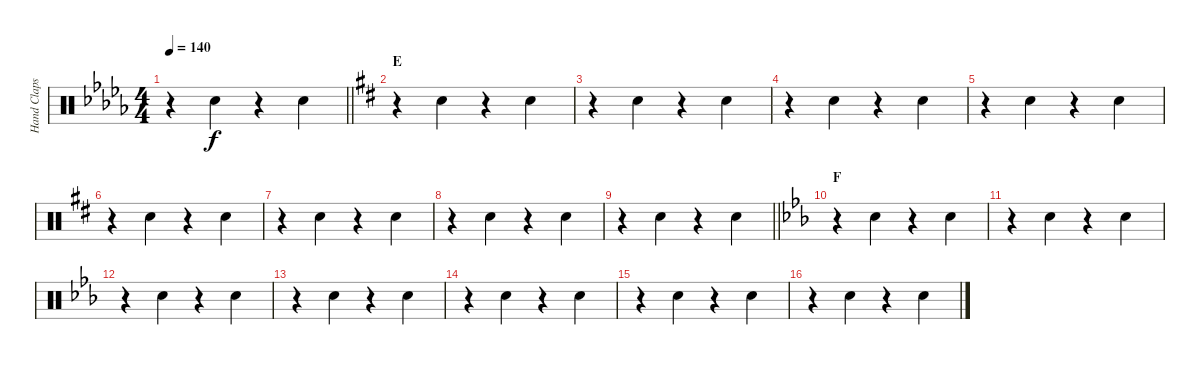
\track ("Hand Claps" "Hand Claps") {instrument percussion}
\staff {score}
\articulation defaults
\ts (4 4)
\tempo 140
\clef neutral
\barLineRight lightlight
\ks db
r.4{dy f} "Hand Clap (hit)".4 r.4 "Hand Clap (hit)".4 |
\section ("" "E")
\ks d
r.4 "Hand Clap (hit)".4 r.4 "Hand Clap (hit)".4 |
r.4 "Hand Clap (hit)".4 r.4 "Hand Clap (hit)".4 |
r.4 "Hand Clap (hit)".4 r.4 "Hand Clap (hit)".4 |
r.4 "Hand Clap (hit)".4 r.4 "Hand Clap (hit)".4 |
r.4 "Hand Clap (hit)".4 r.4 "Hand Clap (hit)".4 |
r.4 "Hand Clap (hit)".4 r.4 "Hand Clap (hit)".4 |
r.4 "Hand Clap (hit)".4 r.4 "Hand Clap (hit)".4 |
\barLineRight lightlight
r.4 "Hand Clap (hit)".4 r.4 "Hand Clap (hit)".4 |
\section ("" "F")
\ks eb
r.4 "Hand Clap (hit)".4 r.4 "Hand Clap (hit)".4 |
r.4 "Hand Clap (hit)".4 r.4 "Hand Clap (hit)".4 |
r.4 "Hand Clap (hit)".4 r.4 "Hand Clap (hit)".4 |
r.4 "Hand Clap (hit)".4 r.4 "Hand Clap (hit)".4 |
r.4 "Hand Clap (hit)".4 r.4 "Hand Clap (hit)".4 |
r.4 "Hand Clap (hit)".4 r.4 "Hand Clap (hit)".4 |
r.4 "Hand Clap (hit)".4 r.4 "Hand Clap (hit)".4
